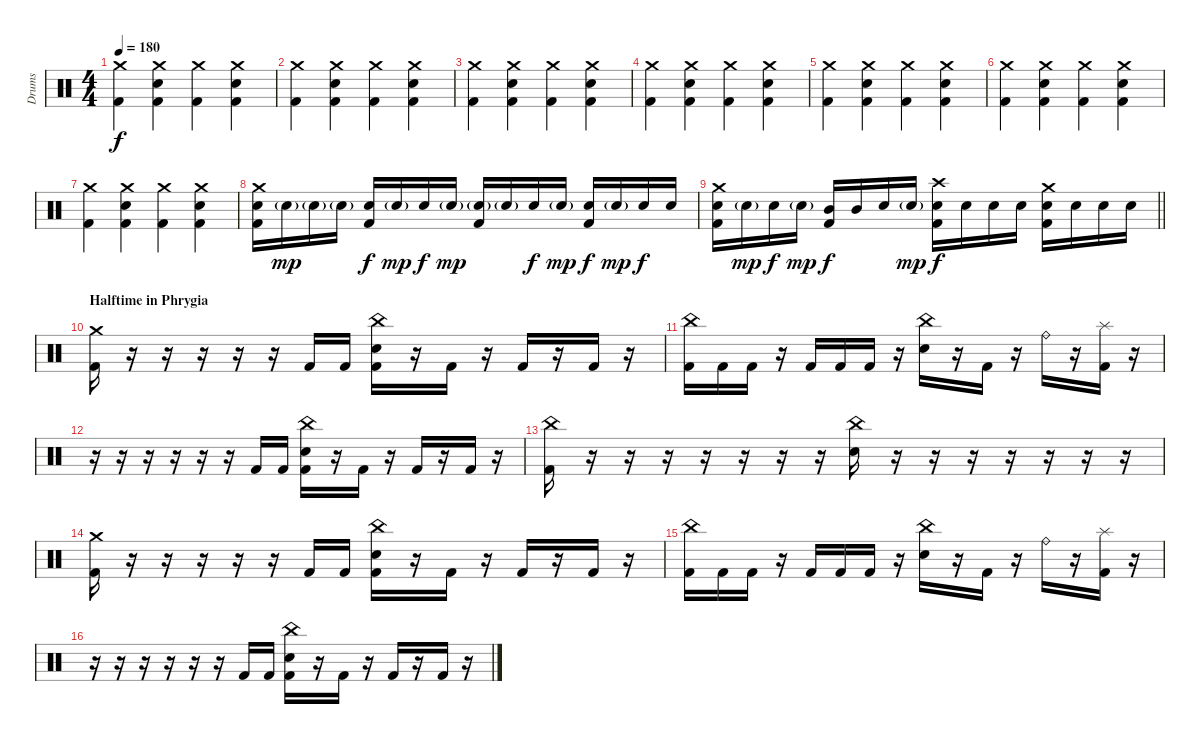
\track ("Drums" "Drums") {instrument percussion}
\staff {score}
\articulation defaults
\ts (4 4)
\tempo 180
\clef neutral
\ks c
("Crash medium (hit)" "Kick (hit) 2").4{dy f} ("Crash medium (hit)" "Snare (hit) 2" "Kick (hit) 2").4 ("Crash medium (hit)" "Kick (hit) 2").4 ("Crash medium (hit)" "Snare (hit) 2" "Kick (hit) 2").4 |
("Crash medium (hit)" "Kick (hit) 2").4 ("Crash medium (hit)" "Snare (hit) 2" "Kick (hit) 2").4 ("Crash medium (hit)" "Kick (hit) 2").4 ("Crash medium (hit)" "Snare (hit) 2" "Kick (hit) 2").4 |
("Crash medium (hit)" "Kick (hit) 2").4 ("Crash medium (hit)" "Snare (hit) 2" "Kick (hit) 2").4 ("Crash medium (hit)" "Kick (hit) 2").4 ("Crash medium (hit)" "Snare (hit) 2" "Kick (hit) 2").4 |
("Crash medium (hit)" "Kick (hit) 2").4 ("Crash medium (hit)" "Snare (hit) 2" "Kick (hit) 2").4 ("Crash medium (hit)" "Kick (hit) 2").4 ("Crash medium (hit)" "Snare (hit) 2" "Kick (hit) 2").4 |
("Crash medium (hit)" "Kick (hit) 2").4 ("Crash medium (hit)" "Snare (hit) 2" "Kick (hit) 2").4 ("Crash medium (hit)" "Kick (hit) 2").4 ("Crash medium (hit)" "Snare (hit) 2" "Kick (hit) 2").4 |
("Crash medium (hit)" "Kick (hit) 2").4 ("Crash medium (hit)" "Snare (hit) 2" "Kick (hit) 2").4 ("Crash medium (hit)" "Kick (hit) 2").4 ("Crash medium (hit)" "Snare (hit) 2" "Kick (hit) 2").4 |
("Crash medium (hit)" "Kick (hit) 2").4 ("Crash medium (hit)" "Snare (hit) 2" "Kick (hit) 2").4 ("Crash medium (hit)" "Kick (hit) 2").4 ("Crash medium (hit)" "Snare (hit) 2" "Kick (hit) 2").4 |
("Crash medium (hit)" "Snare (hit) 2" "Kick (hit) 2").16 "Snare (hit) 2"{g}.16{dy mp} "Snare (hit) 2"{g}.16 "Snare (hit) 2"{g}.16 ("Snare (hit) 2" "Kick (hit) 2").16{dy f} "Snare (hit) 2"{g}.16{dy mp} "Snare (hit) 2".16{dy f} "Snare (hit) 2"{g}.16{dy mp} ("Snare (hit) 2"{g} "Kick (hit) 2").16 "Snare (hit) 2"{g}.16 "Snare (hit) 2".16{dy f} "Snare (hit) 2"{g}.16{dy mp} ("Snare (hit) 2" "Kick (hit) 2").16{dy f} "Snare (hit) 2"{g}.16{dy mp} "Snare (hit) 2".16{dy f} "Snare (hit) 2".16 |
\barLineRight lightlight
("Crash medium (hit)" "Snare (hit) 2" "Kick (hit) 2").16 "Snare (hit) 2"{g}.16{dy mp} "Snare (hit) 2".16{dy f} "Snare (hit) 2"{g}.16{dy mp} ("Mid Tom (hit)" "Kick (hit) 2").16{dy f} "Mid Tom (hit)".16 "Snare (hit) 2".16 "Snare (hit) 2"{g}.16{dy mp} ("Crash high (hit)" "Snare (hit) 2" "Kick (hit) 2").16{dy f} "Snare (hit) 2".16 "Snare (hit) 2".16 "Snare (hit) 2".16 ("Crash medium (hit)" "Snare (hit) 2" "Kick (hit) 2").16 "Snare (hit) 2".16 "Snare (hit) 2".16 "Snare (hit) 2".16 |
\section ("" "Halftime in Phrygia")
("Crash medium (hit)" "Kick (hit) 2").16 r.16 r.16 r.16 r.16 r.16 "Kick (hit) 2".16 "Kick (hit) 2".16 ("China (hit)" "Snare (hit) 2" "Kick (hit) 2").16 r.16 "Kick (hit) 2".16 r.16 "Kick (hit) 2".16 r.16 "Kick (hit) 2".16 r.16 |
("China (hit)" "Kick (hit) 2").16 "Kick (hit) 2".16 "Kick (hit) 2".16 r.16 "Kick (hit) 2".16 "Kick (hit) 2".16 "Kick (hit) 2".16 r.16 ("China (hit)" "Snare (hit) 2").16 r.16 "Kick (hit) 2".16 r.16 "Ride (bell)".16 r.16 ("Splash (hit)" "Kick (hit) 2").16 r.16 |
r.16 r.16 r.16 r.16 r.16 r.16 "Kick (hit) 2".16 "Kick (hit) 2".16 ("China (hit)" "Snare (hit) 2" "Kick (hit) 2").16 r.16 "Kick (hit) 2".16 r.16 "Kick (hit) 2".16 r.16 "Kick (hit) 2".16 r.16 |
("China (hit)" "Kick (hit) 2").16 r.16 r.16 r.16 r.16 r.16 r.16 r.16 ("China (hit)" "Snare (hit) 2").16 r.16 r.16 r.16 r.16 r.16 r.16 r.16 |
("Crash medium (hit)" "Kick (hit) 2").16 r.16 r.16 r.16 r.16 r.16 "Kick (hit) 2".16 "Kick (hit) 2".16 ("China (hit)" "Snare (hit) 2" "Kick (hit) 2").16 r.16 "Kick (hit) 2".16 r.16 "Kick (hit) 2".16 r.16 "Kick (hit) 2".16 r.16 |
("China (hit)" "Kick (hit) 2").16 "Kick (hit) 2".16 "Kick (hit) 2".16 r.16 "Kick (hit) 2".16 "Kick (hit) 2".16 "Kick (hit) 2".16 r.16 ("China (hit)" "Snare (hit) 2").16 r.16 "Kick (hit) 2".16 r.16 "Ride (bell)".16 r.16 ("Splash (hit)" "Kick (hit) 2").16 r.16 |
r.16 r.16 r.16 r.16 r.16 r.16 "Kick (hit) 2".16 "Kick (hit) 2".16 ("China (hit)" "Snare (hit) 2" "Kick (hit) 2").16 r.16 "Kick (hit) 2".16 r.16 "Kick (hit) 2".16 r.16 "Kick (hit) 2".16 r.16
